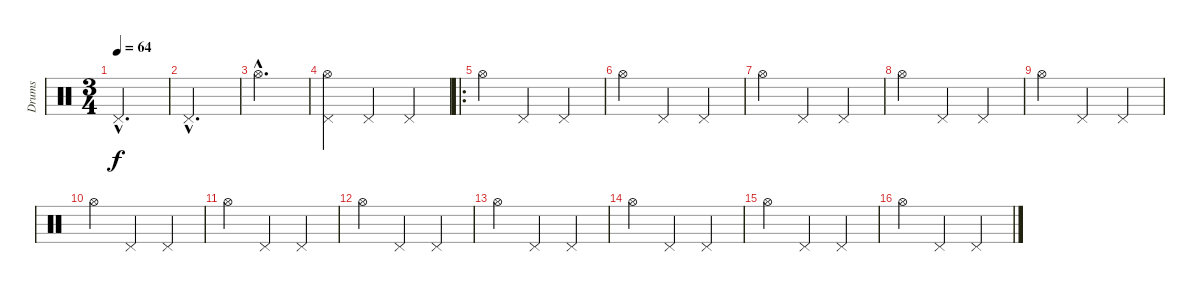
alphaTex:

\track ("Drums" "Drums") {instrument percussion}
\staff {score}
\articulation defaults
\ts (3 4)
\tempo 64
\clef neutral
\ks c "Pedal Hi-Hat (hit)"{hac}.2{d dy f}
|
"Pedal Hi-Hat (hit)"{hac}.2{d} |
"Hi-Hat (open)"{hac}.2{d} |
("Hi-Hat (open)" "Pedal Hi-Hat (hit)").4 "Pedal Hi-Hat (hit)".4 "Pedal Hi-Hat (hit)".4 |
\ro "Hi-Hat (open)".4 "Pedal Hi-Hat (hit)".4 "Pedal Hi-Hat (hit)".4
|
"Hi-Hat (open)".4 "Pedal Hi-Hat (hit)".4 "Pedal Hi-Hat (hit)".4 |
"Hi-Hat (open)".4 "Pedal Hi-Hat (hit)".4 "Pedal Hi-Hat (hit)".4 |
"Hi-Hat (open)".4 "Pedal Hi-Hat (hit)".4 "Pedal Hi-Hat (hit)".4 |
"Hi-Hat (open)".4 "Pedal Hi-Hat (hit)".4 "Pedal Hi-Hat (hit)".4 |
"Hi-Hat (open)".4 "Pedal Hi-Hat (hit)".4 "Pedal Hi-Hat (hit)".4 |
"Hi-Hat (open)".4 "Pedal Hi-Hat (hit)".4 "Pedal Hi-Hat (hit)".4 |
"Hi-Hat (open)".4 "Pedal Hi-Hat (hit)".4 "Pedal Hi-Hat (hit)".4 |
"Hi-Hat (open)".4 "Pedal Hi-Hat (hit)".4 "Pedal Hi-Hat (hit)".4 |
"Hi-Hat (open)".4 "Pedal Hi-Hat (hit)".4 "Pedal Hi-Hat (hit)".4 |
"Hi-Hat (open)".4 "Pedal Hi-Hat (hit)".4 "Pedal Hi-Hat (hit)".4 |
"Hi-Hat (open)".4 "Pedal Hi-Hat (hit)".4 "Pedal Hi-Hat (hit)".4
